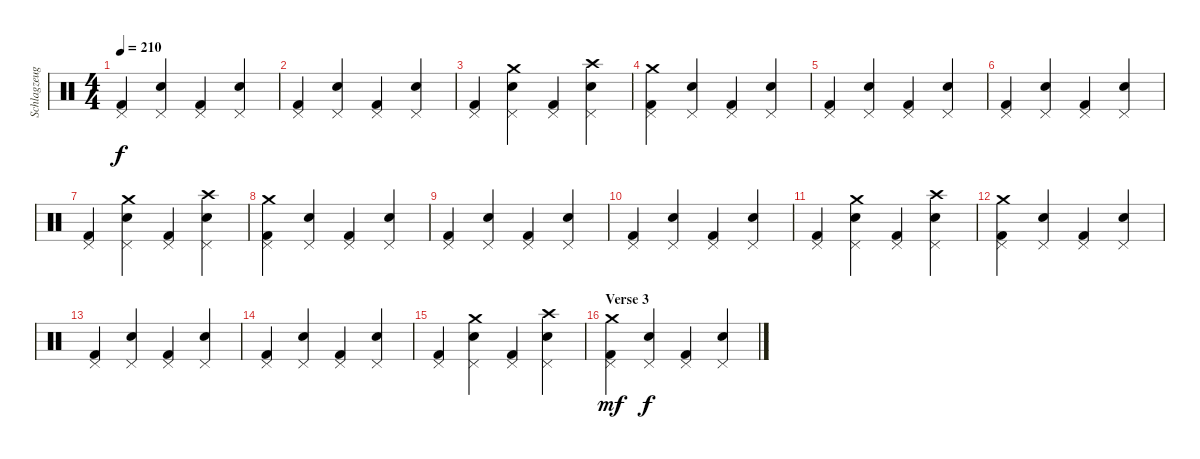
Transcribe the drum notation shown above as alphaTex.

\track ("Schlagzeug" "Schlagzeug") {instrument percussion}
\staff {score}
\articulation defaults
\ts (4 4)
\tempo 210
\clef neutral
\ks c
("Pedal Hi-Hat (hit)" "Kick (hit) 2").4{dy f} ("Pedal Hi-Hat (hit)" "Electric Snare (hit)").4 ("Pedal Hi-Hat (hit)" "Kick (hit) 2").4 ("Pedal Hi-Hat (hit)" "Electric Snare (hit)").4 |
("Pedal Hi-Hat (hit)" "Kick (hit) 2").4 ("Pedal Hi-Hat (hit)" "Electric Snare (hit)").4 ("Pedal Hi-Hat (hit)" "Kick (hit) 2").4 ("Pedal Hi-Hat (hit)" "Electric Snare (hit)").4 |
("Pedal Hi-Hat (hit)" "Kick (hit) 2").4 ("Pedal Hi-Hat (hit)" "Electric Snare (hit)" "Crash medium (hit)").4 ("Pedal Hi-Hat (hit)" "Kick (hit) 2").4 ("Pedal Hi-Hat (hit)" "Electric Snare (hit)" "Crash high (hit)").4 |
("Pedal Hi-Hat (hit)" "Crash medium (hit)" "Kick (hit) 2").4 ("Pedal Hi-Hat (hit)" "Electric Snare (hit)").4 ("Pedal Hi-Hat (hit)" "Kick (hit) 2").4 ("Pedal Hi-Hat (hit)" "Electric Snare (hit)").4 |
("Pedal Hi-Hat (hit)" "Kick (hit) 2").4 ("Pedal Hi-Hat (hit)" "Electric Snare (hit)").4 ("Pedal Hi-Hat (hit)" "Kick (hit) 2").4 ("Pedal Hi-Hat (hit)" "Electric Snare (hit)").4 |
("Pedal Hi-Hat (hit)" "Kick (hit) 2").4 ("Pedal Hi-Hat (hit)" "Electric Snare (hit)").4 ("Pedal Hi-Hat (hit)" "Kick (hit) 2").4 ("Pedal Hi-Hat (hit)" "Electric Snare (hit)").4 |
("Pedal Hi-Hat (hit)" "Kick (hit) 2").4 ("Pedal Hi-Hat (hit)" "Electric Snare (hit)" "Crash medium (hit)").4 ("Pedal Hi-Hat (hit)" "Kick (hit) 2").4 ("Pedal Hi-Hat (hit)" "Electric Snare (hit)" "Crash high (hit)").4 |
("Pedal Hi-Hat (hit)" "Crash medium (hit)" "Kick (hit) 2").4 ("Pedal Hi-Hat (hit)" "Electric Snare (hit)").4 ("Pedal Hi-Hat (hit)" "Kick (hit) 2").4 ("Pedal Hi-Hat (hit)" "Electric Snare (hit)").4 |
("Pedal Hi-Hat (hit)" "Kick (hit) 2").4 ("Pedal Hi-Hat (hit)" "Electric Snare (hit)").4 ("Pedal Hi-Hat (hit)" "Kick (hit) 2").4 ("Pedal Hi-Hat (hit)" "Electric Snare (hit)").4 |
("Pedal Hi-Hat (hit)" "Kick (hit) 2").4 ("Pedal Hi-Hat (hit)" "Electric Snare (hit)").4 ("Pedal Hi-Hat (hit)" "Kick (hit) 2").4 ("Pedal Hi-Hat (hit)" "Electric Snare (hit)").4 |
("Pedal Hi-Hat (hit)" "Kick (hit) 2").4 ("Pedal Hi-Hat (hit)" "Electric Snare (hit)" "Crash medium (hit)").4 ("Pedal Hi-Hat (hit)" "Kick (hit) 2").4 ("Pedal Hi-Hat (hit)" "Electric Snare (hit)" "Crash high (hit)").4 |
("Pedal Hi-Hat (hit)" "Crash medium (hit)" "Kick (hit) 2").4 ("Pedal Hi-Hat (hit)" "Electric Snare (hit)").4 ("Pedal Hi-Hat (hit)" "Kick (hit) 2").4 ("Pedal Hi-Hat (hit)" "Electric Snare (hit)").4 |
("Pedal Hi-Hat (hit)" "Kick (hit) 2").4 ("Pedal Hi-Hat (hit)" "Electric Snare (hit)").4 ("Pedal Hi-Hat (hit)" "Kick (hit) 2").4 ("Pedal Hi-Hat (hit)" "Electric Snare (hit)").4 |
("Pedal Hi-Hat (hit)" "Kick (hit) 2").4 ("Pedal Hi-Hat (hit)" "Electric Snare (hit)").4 ("Pedal Hi-Hat (hit)" "Kick (hit) 2").4 ("Pedal Hi-Hat (hit)" "Electric Snare (hit)").4 |
("Pedal Hi-Hat (hit)" "Kick (hit) 2").4 ("Pedal Hi-Hat (hit)" "Electric Snare (hit)" "Crash medium (hit)").4 ("Pedal Hi-Hat (hit)" "Kick (hit) 2").4 ("Pedal Hi-Hat (hit)" "Electric Snare (hit)" "Crash high (hit)").4 |
\section ("" "Verse 3")
("Pedal Hi-Hat (hit)" "Crash medium (hit)" "Kick (hit) 2").4{dy mf} ("Pedal Hi-Hat (hit)" "Electric Snare (hit)").4{dy f} ("Pedal Hi-Hat (hit)" "Kick (hit) 2").4 ("Pedal Hi-Hat (hit)" "Electric Snare (hit)").4
